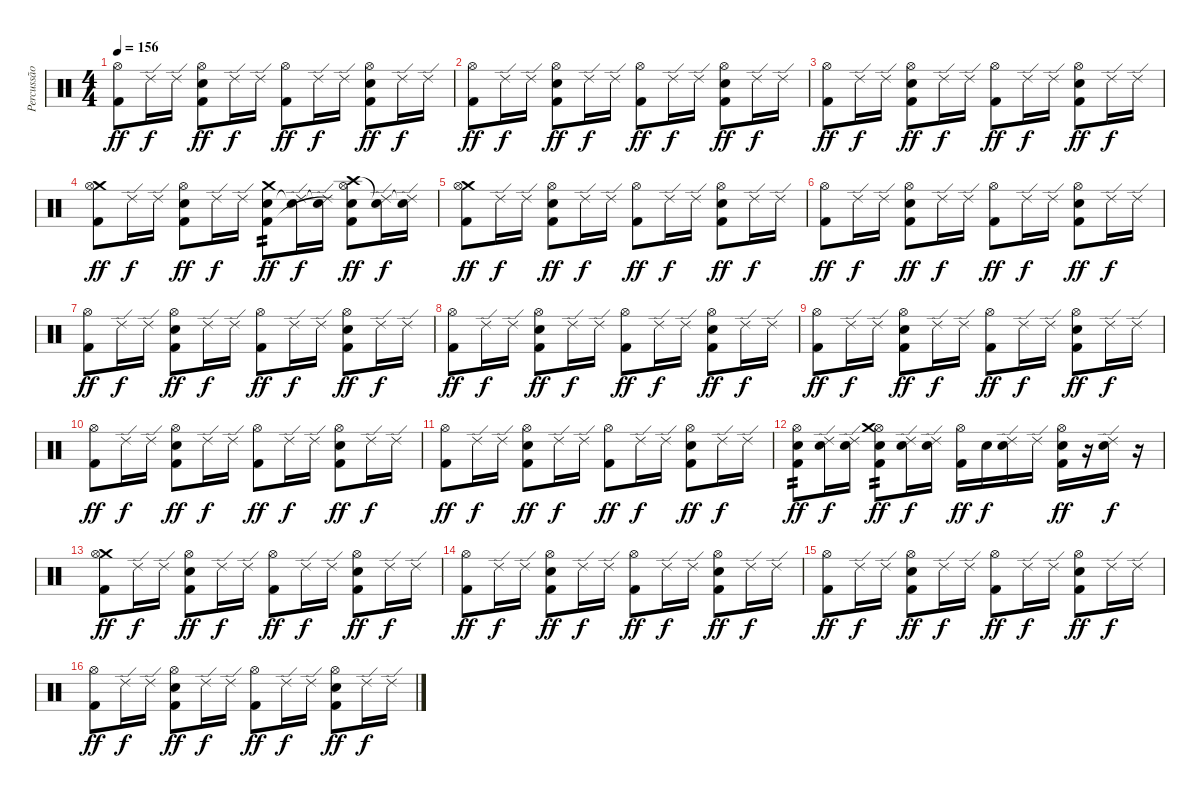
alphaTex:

\track ("Percussão" "Percussão") {instrument percussion}
\staff {score}
\articulation defaults
\ts (4 4)
\tempo 156
\clef neutral
\ks c
("Hi-Hat (open)" "Kick (hit) 2").8{dy ff} "Ride (edge) 2".16{dy f} "Ride (edge) 2".16 ("Hi-Hat (open)" "Snare (hit) 2" "Kick (hit) 2").8{dy ff} "Ride (edge) 2".16{dy f} "Ride (edge) 2".16 ("Hi-Hat (open)" "Kick (hit) 2").8{dy ff} "Ride (edge) 2".16{dy f} "Ride (edge) 2".16 ("Hi-Hat (open)" "Snare (hit) 2" "Kick (hit) 2").8{dy ff} "Ride (edge) 2".16{dy f} "Ride (edge) 2".16 |
("Hi-Hat (open)" "Kick (hit) 2").8{dy ff} "Ride (edge) 2".16{dy f} "Ride (edge) 2".16 ("Hi-Hat (open)" "Snare (hit) 2" "Kick (hit) 2").8{dy ff} "Ride (edge) 2".16{dy f} "Ride (edge) 2".16 ("Hi-Hat (open)" "Kick (hit) 2").8{dy ff} "Ride (edge) 2".16{dy f} "Ride (edge) 2".16 ("Hi-Hat (open)" "Snare (hit) 2" "Kick (hit) 2").8{dy ff} "Ride (edge) 2".16{dy f} "Ride (edge) 2".16 |
("Hi-Hat (open)" "Kick (hit) 2").8{dy ff} "Ride (edge) 2".16{dy f} "Ride (edge) 2".16 ("Hi-Hat (open)" "Snare (hit) 2" "Kick (hit) 2").8{dy ff} "Ride (edge) 2".16{dy f} "Ride (edge) 2".16 ("Hi-Hat (open)" "Kick (hit) 2").8{dy ff} "Ride (edge) 2".16{dy f} "Ride (edge) 2".16 ("Hi-Hat (open)" "Snare (hit) 2" "Kick (hit) 2").8{dy ff} "Ride (edge) 2".16{dy f} "Ride (edge) 2".16 |
("Crash medium (hit)" "Hi-Hat (open)" "Kick (hit) 2").8{dy ff} "Ride (edge) 2".16{dy f} "Ride (edge) 2".16 ("Hi-Hat (open)" "Snare (hit) 2" "Kick (hit) 2").8{dy ff} "Ride (edge) 2".16{dy f} "Ride (edge) 2".16 ("Crash medium (hit)" "Snare (hit) 2" "Kick (hit) 2").8{tp 2 dy ff} ("Ride (edge) 2" "Snare (hit)"{t}).16{dy f} ("Ride (edge) 2" "Snare (hit)"{t}).16 ("Hi-Hat (open)" "Crash high (hit)" "Snare (hit) 2"{t} "Kick (hit) 2").8{dy ff} ("Ride (edge) 2" "Snare (hit)"{t}).16{dy f} ("Ride (edge) 2" "Snare (hit)"{t}).16 |
("Crash medium (hit)" "Hi-Hat (open)" "Kick (hit) 2").8{dy ff} "Ride (edge) 2".16{dy f} "Ride (edge) 2".16 ("Hi-Hat (open)" "Snare (hit) 2" "Kick (hit) 2").8{dy ff} "Ride (edge) 2".16{dy f} "Ride (edge) 2".16 ("Hi-Hat (open)" "Kick (hit) 2").8{dy ff} "Ride (edge) 2".16{dy f} "Ride (edge) 2".16 ("Hi-Hat (open)" "Snare (hit) 2" "Kick (hit) 2").8{dy ff} "Ride (edge) 2".16{dy f} "Ride (edge) 2".16 |
("Hi-Hat (open)" "Kick (hit) 2").8{dy ff} "Ride (edge) 2".16{dy f} "Ride (edge) 2".16 ("Hi-Hat (open)" "Snare (hit) 2" "Kick (hit) 2").8{dy ff} "Ride (edge) 2".16{dy f} "Ride (edge) 2".16 ("Hi-Hat (open)" "Kick (hit) 2").8{dy ff} "Ride (edge) 2".16{dy f} "Ride (edge) 2".16 ("Hi-Hat (open)" "Snare (hit) 2" "Kick (hit) 2").8{dy ff} "Ride (edge) 2".16{dy f} "Ride (edge) 2".16 |
("Hi-Hat (open)" "Kick (hit) 2").8{dy ff} "Ride (edge) 2".16{dy f} "Ride (edge) 2".16 ("Hi-Hat (open)" "Snare (hit) 2" "Kick (hit) 2").8{dy ff} "Ride (edge) 2".16{dy f} "Ride (edge) 2".16 ("Hi-Hat (open)" "Kick (hit) 2").8{dy ff} "Ride (edge) 2".16{dy f} "Ride (edge) 2".16 ("Hi-Hat (open)" "Snare (hit) 2" "Kick (hit) 2").8{dy ff} "Ride (edge) 2".16{dy f} "Ride (edge) 2".16 |
("Hi-Hat (open)" "Kick (hit) 2").8{dy ff} "Ride (edge) 2".16{dy f} "Ride (edge) 2".16 ("Hi-Hat (open)" "Snare (hit) 2" "Kick (hit) 2").8{dy ff} "Ride (edge) 2".16{dy f} "Ride (edge) 2".16 ("Hi-Hat (open)" "Kick (hit) 2").8{dy ff} "Ride (edge) 2".16{dy f} "Ride (edge) 2".16 ("Hi-Hat (open)" "Snare (hit) 2" "Kick (hit) 2").8{dy ff} "Ride (edge) 2".16{dy f} "Ride (edge) 2".16 |
("Hi-Hat (open)" "Kick (hit) 2").8{dy ff} "Ride (edge) 2".16{dy f} "Ride (edge) 2".16 ("Hi-Hat (open)" "Snare (hit) 2" "Kick (hit) 2").8{dy ff} "Ride (edge) 2".16{dy f} "Ride (edge) 2".16 ("Hi-Hat (open)" "Kick (hit) 2").8{dy ff} "Ride (edge) 2".16{dy f} "Ride (edge) 2".16 ("Hi-Hat (open)" "Snare (hit) 2" "Kick (hit) 2").8{dy ff} "Ride (edge) 2".16{dy f} "Ride (edge) 2".16 |
("Hi-Hat (open)" "Kick (hit) 2").8{dy ff} "Ride (edge) 2".16{dy f} "Ride (edge) 2".16 ("Hi-Hat (open)" "Snare (hit) 2" "Kick (hit) 2").8{dy ff} "Ride (edge) 2".16{dy f} "Ride (edge) 2".16 ("Hi-Hat (open)" "Kick (hit) 2").8{dy ff} "Ride (edge) 2".16{dy f} "Ride (edge) 2".16 ("Hi-Hat (open)" "Snare (hit) 2" "Kick (hit) 2").8{dy ff} "Ride (edge) 2".16{dy f} "Ride (edge) 2".16 |
("Hi-Hat (open)" "Kick (hit) 2").8{dy ff} "Ride (edge) 2".16{dy f} "Ride (edge) 2".16 ("Hi-Hat (open)" "Snare (hit) 2" "Kick (hit) 2").8{dy ff} "Ride (edge) 2".16{dy f} "Ride (edge) 2".16 ("Hi-Hat (open)" "Kick (hit) 2").8{dy ff} "Ride (edge) 2".16{dy f} "Ride (edge) 2".16 ("Hi-Hat (open)" "Snare (hit) 2" "Kick (hit) 2").8{dy ff} "Ride (edge) 2".16{dy f} "Ride (edge) 2".16 |
("Hi-Hat (open)" "Snare (hit) 2" "Kick (hit) 2").8{tp 2 dy ff} ("Ride (edge) 2" "Snare (hit) 2").16{dy f} ("Ride (edge) 2" "Snare (hit) 2").16 ("Hi-Hat (open)" "Crash medium (hit)" "Snare (hit) 2" "Kick (hit) 2").8{tp 2 dy ff} ("Ride (edge) 2" "Snare (hit) 2").16{dy f} ("Ride (edge) 2" "Snare (hit) 2").16 ("Hi-Hat (open)" "Kick (hit) 2").16{dy ff} "Snare (hit) 2".16{dy f} ("Ride (edge) 2" "Snare (hit) 2").16 "Ride (edge) 2".16 ("Hi-Hat (open)" "Snare (hit) 2" "Kick (hit) 2").16{dy ff} r.16 ("Ride (edge) 2" "Snare (hit) 2").16{dy f} r.16 |
("Crash medium (hit)" "Hi-Hat (open)" "Kick (hit) 2").8{dy ff} "Ride (edge) 2".16{dy f} "Ride (edge) 2".16 ("Hi-Hat (open)" "Snare (hit) 2" "Kick (hit) 2").8{dy ff} "Ride (edge) 2".16{dy f} "Ride (edge) 2".16 ("Hi-Hat (open)" "Kick (hit) 2").8{dy ff} "Ride (edge) 2".16{dy f} "Ride (edge) 2".16 ("Hi-Hat (open)" "Snare (hit) 2" "Kick (hit) 2").8{dy ff} "Ride (edge) 2".16{dy f} "Ride (edge) 2".16 |
("Hi-Hat (open)" "Kick (hit) 2").8{dy ff} "Ride (edge) 2".16{dy f} "Ride (edge) 2".16 ("Hi-Hat (open)" "Snare (hit) 2" "Kick (hit) 2").8{dy ff} "Ride (edge) 2".16{dy f} "Ride (edge) 2".16 ("Hi-Hat (open)" "Kick (hit) 2").8{dy ff} "Ride (edge) 2".16{dy f} "Ride (edge) 2".16 ("Hi-Hat (open)" "Snare (hit) 2" "Kick (hit) 2").8{dy ff} "Ride (edge) 2".16{dy f} "Ride (edge) 2".16 |
("Hi-Hat (open)" "Kick (hit) 2").8{dy ff} "Ride (edge) 2".16{dy f} "Ride (edge) 2".16 ("Hi-Hat (open)" "Snare (hit) 2" "Kick (hit) 2").8{dy ff} "Ride (edge) 2".16{dy f} "Ride (edge) 2".16 ("Hi-Hat (open)" "Kick (hit) 2").8{dy ff} "Ride (edge) 2".16{dy f} "Ride (edge) 2".16 ("Hi-Hat (open)" "Snare (hit) 2" "Kick (hit) 2").8{dy ff} "Ride (edge) 2".16{dy f} "Ride (edge) 2".16 |
("Hi-Hat (open)" "Kick (hit) 2").8{dy ff} "Ride (edge) 2".16{dy f} "Ride (edge) 2".16 ("Hi-Hat (open)" "Snare (hit) 2" "Kick (hit) 2").8{dy ff} "Ride (edge) 2".16{dy f} "Ride (edge) 2".16 ("Hi-Hat (open)" "Kick (hit) 2").8{dy ff} "Ride (edge) 2".16{dy f} "Ride (edge) 2".16 ("Hi-Hat (open)" "Snare (hit) 2" "Kick (hit) 2").8{dy ff} "Ride (edge) 2".16{dy f} "Ride (edge) 2".16
